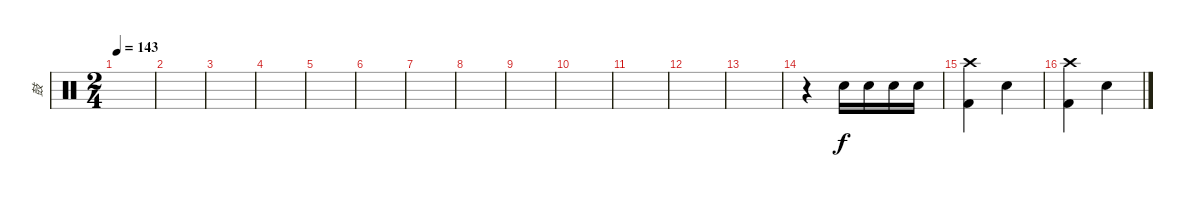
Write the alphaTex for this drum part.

\track ("鼓" "鼓") {instrument percussion}
\staff {score}
\articulation defaults
\ts (2 4)
\tempo 143
\clef neutral
\ks c
|
|
|
|
|
|
|
|
|
|
|
|
|
r.4 "Electric Snare (hit)".16 "Electric Snare (hit)".16 "Electric Snare (hit)".16 "Electric Snare (hit)".16 |
("Kick (hit) 2" "Crash high (hit)").4 "Hand Clap (hit)".4 |
("Kick (hit) 2" "Crash high (hit)").4 "Hand Clap (hit)".4
